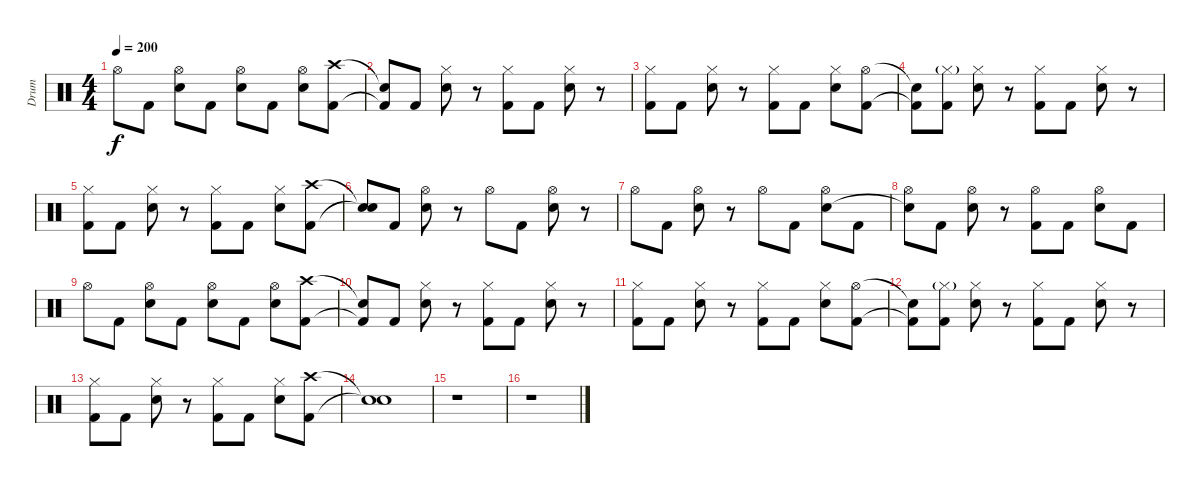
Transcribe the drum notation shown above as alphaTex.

\track ("Drum" "Drum") {instrument percussion}
\staff {score}
\articulation defaults
\ts (4 4)
\tempo 200
\clef neutral
\ks c "Hi-Hat (open)".8{dy f} "Kick (hit) 2".8
("Hi-Hat (open)" "Electric Snare (hit)").8 "Kick (hit) 2".8 ("Hi-Hat (open)" "Electric Snare (hit)").8 "Kick (hit) 2".8 ("Hi-Hat (open)" "Electric Snare (hit)").8 ("Crash high (hit)" "Kick (hit) 2").8 |
("Snare (hit)"{t} "Kick (hit) 2"{t}).8 "Kick (hit) 2".8 ("Hi-Hat (closed)" "Electric Snare (hit)").8 r.8 ("Hi-Hat (closed)" "Kick (hit) 2").8 "Kick (hit) 2".8 ("Hi-Hat (closed)" "Electric Snare (hit)").8 r.8 |
("Hi-Hat (closed)" "Kick (hit) 2").8 "Kick (hit) 2".8 ("Hi-Hat (closed)" "Electric Snare (hit)").8 r.8 ("Hi-Hat (closed)" "Kick (hit) 2").8 "Kick (hit) 2".8 ("Hi-Hat (closed)" "Electric Snare (hit)").8 ("Hi-Hat (open)" "Kick (hit) 2").8 |
("Snare (hit)"{t} "Kick (hit) 2"{t}).8 ("Hi-Hat (closed)"{g} "Kick (hit) 2").8 ("Hi-Hat (closed)" "Electric Snare (hit)").8 r.8 ("Hi-Hat (closed)" "Kick (hit) 2").8 "Kick (hit) 2".8 ("Hi-Hat (closed)" "Electric Snare (hit)").8 r.8 |
("Hi-Hat (closed)" "Kick (hit) 2").8 "Kick (hit) 2".8 ("Hi-Hat (closed)" "Electric Snare (hit)").8 r.8 ("Hi-Hat (closed)" "Kick (hit) 2").8 "Kick (hit) 2".8 ("Hi-Hat (closed)" "Electric Snare (hit)").8 ("Crash high (hit)" "Kick (hit) 2").8 |
("Snare (hit)"{t} "Snare (hit)"{t}).8 "Kick (hit) 2".8 ("Hi-Hat (open)" "Electric Snare (hit)").8 r.8 "Hi-Hat (open)".8 "Kick (hit) 2".8 ("Hi-Hat (open)" "Electric Snare (hit)").8 r.8 |
"Hi-Hat (open)".8 "Kick (hit) 2".8 ("Hi-Hat (open)" "Electric Snare (hit)").8 r.8 "Hi-Hat (open)".8 "Kick (hit) 2".8 ("Hi-Hat (open)" "Electric Snare (hit)").8 "Kick (hit) 2".8 |
("Hi-Hat (open)" "Snare (hit)"{t}).8 "Kick (hit) 2".8 ("Hi-Hat (open)" "Electric Snare (hit)").8 r.8 ("Hi-Hat (open)" "Kick (hit) 2").8 "Kick (hit) 2".8 ("Hi-Hat (open)" "Electric Snare (hit)").8 "Kick (hit) 2".8 |
"Hi-Hat (open)".8 "Kick (hit) 2".8 ("Hi-Hat (open)" "Electric Snare (hit)").8 "Kick (hit) 2".8 ("Hi-Hat (open)" "Electric Snare (hit)").8 "Kick (hit) 2".8 ("Hi-Hat (open)" "Electric Snare (hit)").8 ("Crash high (hit)" "Kick (hit) 2").8 |
("Snare (hit)"{t} "Kick (hit) 2"{t}).8 "Kick (hit) 2".8 ("Hi-Hat (closed)" "Electric Snare (hit)").8 r.8 ("Hi-Hat (closed)" "Kick (hit) 2").8 "Kick (hit) 2".8 ("Hi-Hat (closed)" "Electric Snare (hit)").8 r.8 |
("Hi-Hat (closed)" "Kick (hit) 2").8 "Kick (hit) 2".8 ("Hi-Hat (closed)" "Electric Snare (hit)").8 r.8 ("Hi-Hat (closed)" "Kick (hit) 2").8 "Kick (hit) 2".8 ("Hi-Hat (closed)" "Electric Snare (hit)").8 ("Hi-Hat (open)" "Kick (hit) 2").8 |
("Snare (hit)"{t} "Kick (hit) 2"{t}).8 ("Hi-Hat (closed)"{g} "Kick (hit) 2").8 ("Hi-Hat (closed)" "Electric Snare (hit)").8 r.8 ("Hi-Hat (closed)" "Kick (hit) 2").8 "Kick (hit) 2".8 ("Hi-Hat (closed)" "Electric Snare (hit)").8 r.8 |
("Hi-Hat (closed)" "Kick (hit) 2").8 "Kick (hit) 2".8 ("Hi-Hat (closed)" "Electric Snare (hit)").8 r.8 ("Hi-Hat (closed)" "Kick (hit) 2").8 "Kick (hit) 2".8 ("Hi-Hat (closed)" "Electric Snare (hit)").8 ("Crash high (hit)" "Kick (hit) 2").8 |
("Snare (hit)"{t} "Snare (hit)"{t}).1 |
r.1 |
r.1
